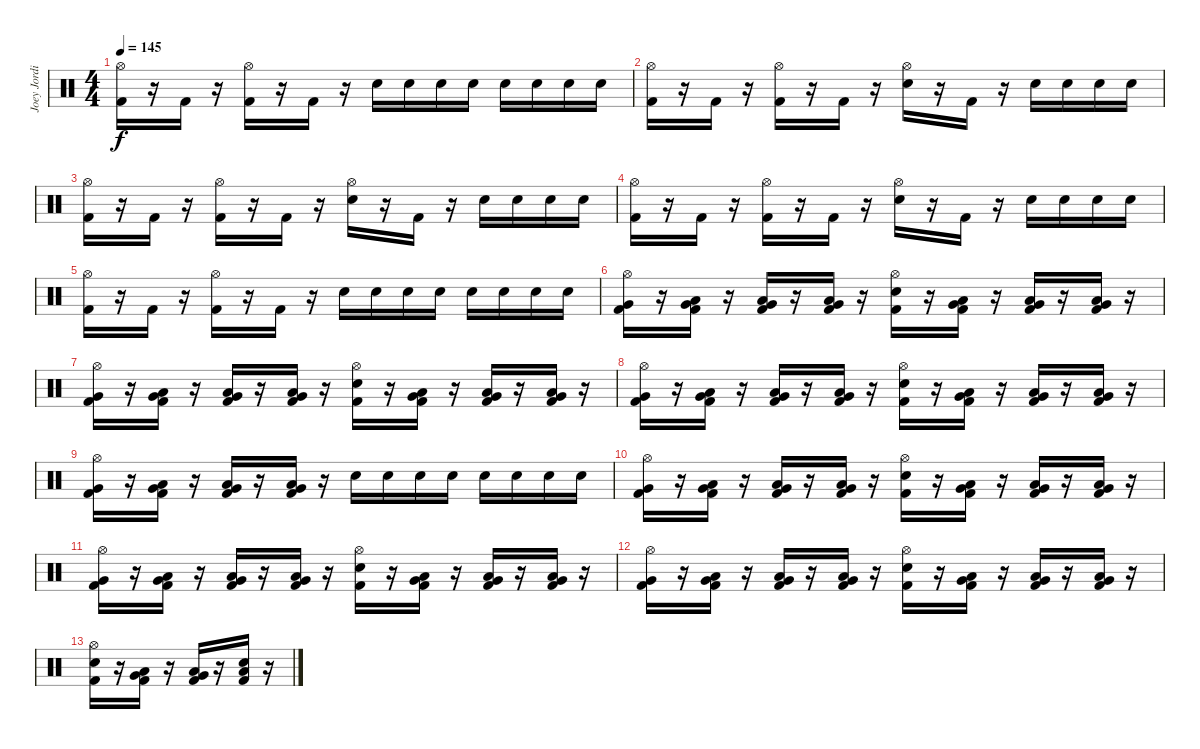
\track ("Joey Jordison" "Joey Jordi") {instrument percussion}
\staff {score}
\articulation defaults
\ts (4 4)
\tempo 145
\clef neutral
\ks c
("Hi-Hat (open)" "Kick (hit) 2").16{dy f} r.16 "Kick (hit) 2".16 r.16 ("Hi-Hat (open)" "Kick (hit) 2").16 r.16 "Kick (hit) 2".16 r.16 "Electric Snare (hit)".16 "Electric Snare (hit)".16 "Electric Snare (hit)".16 "Electric Snare (hit)".16 "Electric Snare (hit)".16 "Electric Snare (hit)".16 "Electric Snare (hit)".16 "Electric Snare (hit)".16 |
("Hi-Hat (open)" "Kick (hit) 2").16 r.16 "Kick (hit) 2".16 r.16 ("Hi-Hat (open)" "Kick (hit) 2").16 r.16 "Kick (hit) 2".16 r.16 ("Hi-Hat (open)" "Electric Snare (hit)").16 r.16 "Kick (hit) 2".16 r.16 "Electric Snare (hit)".16 "Electric Snare (hit)".16 "Electric Snare (hit)".16 "Electric Snare (hit)".16 |
("Hi-Hat (open)" "Kick (hit) 2").16 r.16 "Kick (hit) 2".16 r.16 ("Hi-Hat (open)" "Kick (hit) 2").16 r.16 "Kick (hit) 2".16 r.16 ("Hi-Hat (open)" "Electric Snare (hit)").16 r.16 "Kick (hit) 2".16 r.16 "Electric Snare (hit)".16 "Electric Snare (hit)".16 "Electric Snare (hit)".16 "Electric Snare (hit)".16 |
("Hi-Hat (open)" "Kick (hit) 2").16 r.16 "Kick (hit) 2".16 r.16 ("Hi-Hat (open)" "Kick (hit) 2").16 r.16 "Kick (hit) 2".16 r.16 ("Hi-Hat (open)" "Electric Snare (hit)").16 r.16 "Kick (hit) 2".16 r.16 "Electric Snare (hit)".16 "Electric Snare (hit)".16 "Electric Snare (hit)".16 "Electric Snare (hit)".16 |
("Hi-Hat (open)" "Kick (hit) 2").16 r.16 "Kick (hit) 2".16 r.16 ("Hi-Hat (open)" "Kick (hit) 2").16 r.16 "Kick (hit) 2".16 r.16 "Electric Snare (hit)".16 "Electric Snare (hit)".16 "Electric Snare (hit)".16 "Electric Snare (hit)".16 "Electric Snare (hit)".16 "Electric Snare (hit)".16 "Electric Snare (hit)".16 "Electric Snare (hit)".16 |
("Hi-Hat (open)" "Very Low Tom (hit)" "Kick (hit) 2").16 r.16 ("Low Floor Tom (hit)" "Very Low Tom (hit)" "Kick (hit) 2").16 r.16 ("Low Floor Tom (hit)" "Very Low Tom (hit)" "Kick (hit) 2").16 r.16 ("Low Floor Tom (hit)" "Very Low Tom (hit)" "Kick (hit) 2").16 r.16 ("Hi-Hat (open)" "Electric Snare (hit)" "Kick (hit) 2").16 r.16 ("Low Floor Tom (hit)" "Very Low Tom (hit)" "Kick (hit) 2").16 r.16 ("Low Floor Tom (hit)" "Very Low Tom (hit)" "Kick (hit) 2").16 r.16 ("Low Floor Tom (hit)" "Very Low Tom (hit)" "Kick (hit) 2").16 r.16 |
("Hi-Hat (open)" "Very Low Tom (hit)" "Kick (hit) 2").16 r.16 ("Low Floor Tom (hit)" "Very Low Tom (hit)" "Kick (hit) 2").16 r.16 ("Low Floor Tom (hit)" "Very Low Tom (hit)" "Kick (hit) 2").16 r.16 ("Low Floor Tom (hit)" "Very Low Tom (hit)" "Kick (hit) 2").16 r.16 ("Hi-Hat (open)" "Electric Snare (hit)" "Kick (hit) 2").16 r.16 ("Low Floor Tom (hit)" "Very Low Tom (hit)" "Kick (hit) 2").16 r.16 ("Low Floor Tom (hit)" "Very Low Tom (hit)" "Kick (hit) 2").16 r.16 ("Low Floor Tom (hit)" "Very Low Tom (hit)" "Kick (hit) 2").16 r.16 |
("Hi-Hat (open)" "Very Low Tom (hit)" "Kick (hit) 2").16 r.16 ("Low Floor Tom (hit)" "Very Low Tom (hit)" "Kick (hit) 2").16 r.16 ("Low Floor Tom (hit)" "Very Low Tom (hit)" "Kick (hit) 2").16 r.16 ("Low Floor Tom (hit)" "Very Low Tom (hit)" "Kick (hit) 2").16 r.16 ("Hi-Hat (open)" "Electric Snare (hit)" "Kick (hit) 2").16 r.16 ("Low Floor Tom (hit)" "Very Low Tom (hit)" "Kick (hit) 2").16 r.16 ("Low Floor Tom (hit)" "Very Low Tom (hit)" "Kick (hit) 2").16 r.16 ("Low Floor Tom (hit)" "Very Low Tom (hit)" "Kick (hit) 2").16 r.16 |
("Hi-Hat (open)" "Very Low Tom (hit)" "Kick (hit) 2").16 r.16 ("Low Floor Tom (hit)" "Very Low Tom (hit)" "Kick (hit) 2").16 r.16 ("Low Floor Tom (hit)" "Very Low Tom (hit)" "Kick (hit) 2").16 r.16 ("Low Floor Tom (hit)" "Very Low Tom (hit)" "Kick (hit) 2").16 r.16 "Electric Snare (hit)".16 "Electric Snare (hit)".16 "Electric Snare (hit)".16 "Electric Snare (hit)".16 "Electric Snare (hit)".16 "Electric Snare (hit)".16 "Electric Snare (hit)".16 "Electric Snare (hit)".16 |
("Hi-Hat (open)" "Very Low Tom (hit)" "Kick (hit) 2").16 r.16 ("Low Floor Tom (hit)" "Very Low Tom (hit)" "Kick (hit) 2").16 r.16 ("Low Floor Tom (hit)" "Very Low Tom (hit)" "Kick (hit) 2").16 r.16 ("Low Floor Tom (hit)" "Very Low Tom (hit)" "Kick (hit) 2").16 r.16 ("Hi-Hat (open)" "Electric Snare (hit)" "Kick (hit) 2").16 r.16 ("Low Floor Tom (hit)" "Very Low Tom (hit)" "Kick (hit) 2").16 r.16 ("Low Floor Tom (hit)" "Very Low Tom (hit)" "Kick (hit) 2").16 r.16 ("Low Floor Tom (hit)" "Very Low Tom (hit)" "Kick (hit) 2").16 r.16 |
("Hi-Hat (open)" "Very Low Tom (hit)" "Kick (hit) 2").16 r.16 ("Low Floor Tom (hit)" "Very Low Tom (hit)" "Kick (hit) 2").16 r.16 ("Low Floor Tom (hit)" "Very Low Tom (hit)" "Kick (hit) 2").16 r.16 ("Low Floor Tom (hit)" "Very Low Tom (hit)" "Kick (hit) 2").16 r.16 ("Hi-Hat (open)" "Electric Snare (hit)" "Kick (hit) 2").16 r.16 ("Low Floor Tom (hit)" "Very Low Tom (hit)" "Kick (hit) 2").16 r.16 ("Low Floor Tom (hit)" "Very Low Tom (hit)" "Kick (hit) 2").16 r.16 ("Low Floor Tom (hit)" "Very Low Tom (hit)" "Kick (hit) 2").16 r.16 |
("Hi-Hat (open)" "Very Low Tom (hit)" "Kick (hit) 2").16 r.16 ("Low Floor Tom (hit)" "Very Low Tom (hit)" "Kick (hit) 2").16 r.16 ("Low Floor Tom (hit)" "Very Low Tom (hit)" "Kick (hit) 2").16 r.16 ("Low Floor Tom (hit)" "Very Low Tom (hit)" "Kick (hit) 2").16 r.16 ("Hi-Hat (open)" "Electric Snare (hit)" "Kick (hit) 2").16 r.16 ("Low Floor Tom (hit)" "Very Low Tom (hit)" "Kick (hit) 2").16 r.16 ("Low Floor Tom (hit)" "Very Low Tom (hit)" "Kick (hit) 2").16 r.16 ("Low Floor Tom (hit)" "Very Low Tom (hit)" "Kick (hit) 2").16 r.16 |
("Hi-Hat (open)" "Electric Snare (hit)" "Kick (hit) 2").16 r.16 ("Low Floor Tom (hit)" "Very Low Tom (hit)" "Kick (hit) 2").16 r.16 ("Low Floor Tom (hit)" "Very Low Tom (hit)" "Kick (hit) 2").16 r.16 ("Low Floor Tom (hit)" "Electric Snare (hit)" "Kick (hit) 2").16 r.16
